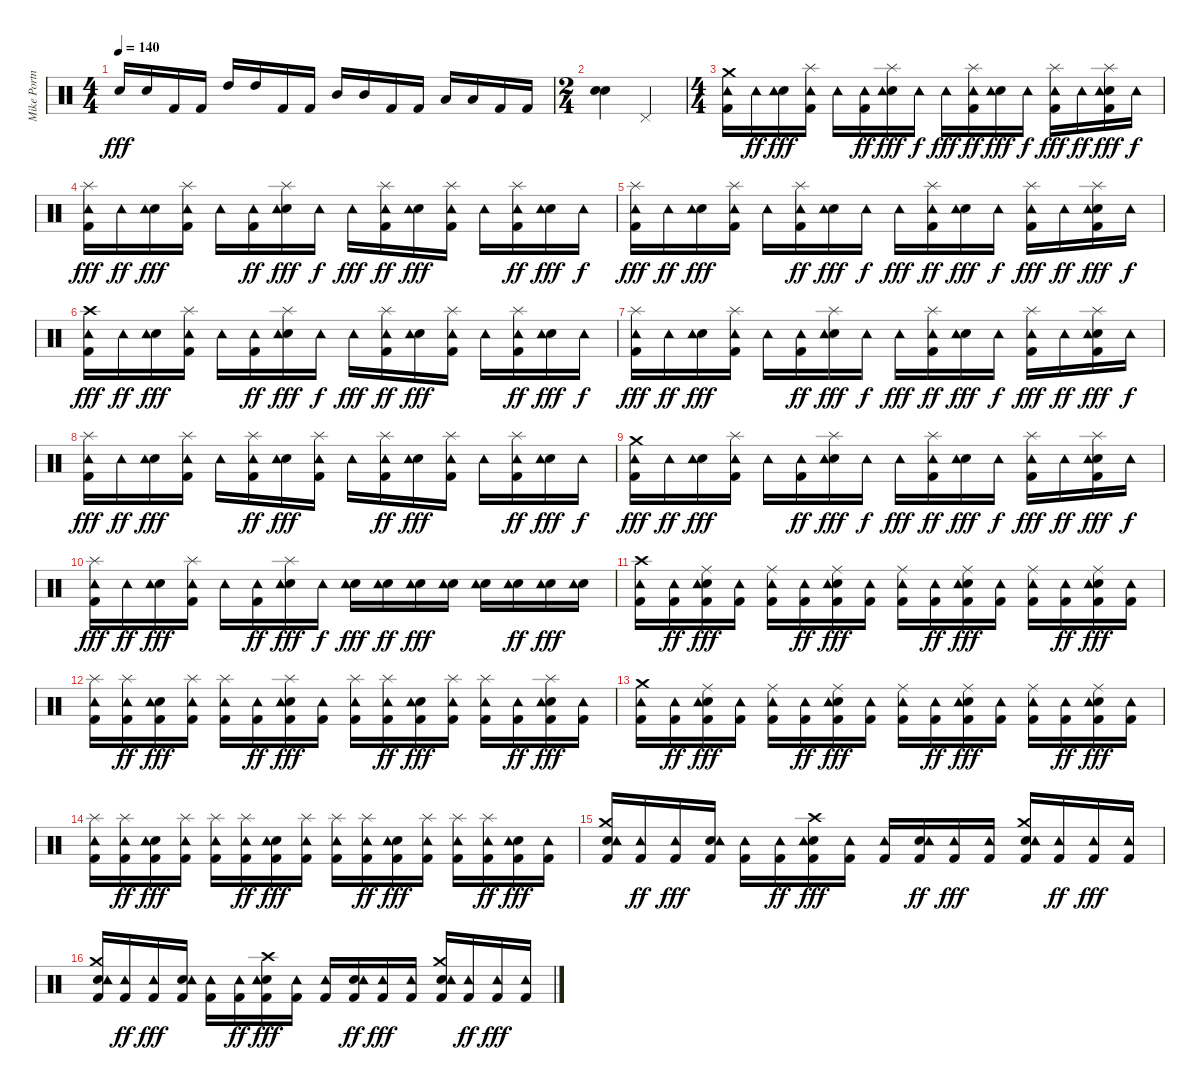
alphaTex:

\track ("Mike Portnoy" "Mike Portn") {instrument percussion}
\staff {score}
\articulation defaults
\ts (4 4)
\tempo 140
\clef neutral
\ks c "Snare (hit) 2".16{dy fff} "Snare (hit) 2".16 "Kick (hit) 2".16 "Kick (hit) 2".16 "High Tom (hit)".16 "High Tom (hit)".16 "Kick (hit) 2".16 "Kick (hit) 2".16 "Mid Tom (hit)".16 "Mid Tom (hit)".16 "Kick (hit) 2".16 "Kick (hit) 2".16 "Low Tom (hit)".16 "Low Tom (hit)".16 "Kick (hit) 2".16 "Kick (hit) 2".16
|
\ts (2 4)
("Snare (hit) 2" "Snare (hit) 2").4 "Pedal Hi-Hat (hit)".4 |
\ts (4 4)
("Crash medium (hit)" "Kick (hit) 2" "Tambourine (hit)").16 "Tambourine (hit)".16{dy ff} ("Snare (hit) 2" "Tambourine (hit)").16{dy fff} ("Splash (hit)" "Kick (hit) 2" "Tambourine (hit)").16 "Tambourine (hit)".16 ("Kick (hit) 2" "Tambourine (hit)").16{dy ff} ("Splash (hit)" "Snare (hit) 2" "Tambourine (hit)").16{dy fff} "Tambourine (hit)".16{dy f} "Tambourine (hit)".16{dy fff} ("Splash (hit)" "Kick (hit) 2" "Tambourine (hit)").16{dy ff} ("Snare (hit) 2" "Tambourine (hit)").16{dy fff} "Tambourine (hit)".16{dy f} ("Splash (hit)" "Kick (hit) 2" "Tambourine (hit)").16{dy fff} "Tambourine (hit)".16{dy ff} ("Splash (hit)" "Snare (hit) 2" "Kick (hit) 2" "Tambourine (hit)").16{dy fff} "Tambourine (hit)".16{dy f} |
("Splash (hit)" "Kick (hit) 2" "Tambourine (hit)").16{dy fff} "Tambourine (hit)".16{dy ff} ("Snare (hit) 2" "Tambourine (hit)").16{dy fff} ("Splash (hit)" "Kick (hit) 2" "Tambourine (hit)").16 "Tambourine (hit)".16 ("Kick (hit) 2" "Tambourine (hit)").16{dy ff} ("Splash (hit)" "Snare (hit) 2" "Tambourine (hit)").16{dy fff} "Tambourine (hit)".16{dy f} "Tambourine (hit)".16{dy fff} ("Splash (hit)" "Kick (hit) 2" "Tambourine (hit)").16{dy ff} ("Snare (hit) 2" "Tambourine (hit)").16{dy fff} ("Splash (hit)" "Kick (hit) 2" "Tambourine (hit)").16 "Tambourine (hit)".16 ("Splash (hit)" "Kick (hit) 2" "Tambourine (hit)").16{dy ff} ("Snare (hit) 2" "Tambourine (hit)").16{dy fff} "Tambourine (hit)".16{dy f} |
("Splash (hit)" "Kick (hit) 2" "Tambourine (hit)").16{dy fff} "Tambourine (hit)".16{dy ff} ("Snare (hit) 2" "Tambourine (hit)").16{dy fff} ("Splash (hit)" "Kick (hit) 2" "Tambourine (hit)").16 "Tambourine (hit)".16 ("Splash (hit)" "Kick (hit) 2" "Tambourine (hit)").16{dy ff} ("Snare (hit) 2" "Tambourine (hit)").16{dy fff} "Tambourine (hit)".16{dy f} "Tambourine (hit)".16{dy fff} ("Splash (hit)" "Kick (hit) 2" "Tambourine (hit)").16{dy ff} ("Snare (hit) 2" "Tambourine (hit)").16{dy fff} "Tambourine (hit)".16{dy f} ("Splash (hit)" "Kick (hit) 2" "Tambourine (hit)").16{dy fff} "Tambourine (hit)".16{dy ff} ("Splash (hit)" "Snare (hit) 2" "Kick (hit) 2" "Tambourine (hit)").16{dy fff} "Tambourine (hit)".16{dy f} |
("Crash high (hit)" "Kick (hit) 2" "Tambourine (hit)").16{dy fff} "Tambourine (hit)".16{dy ff} ("Snare (hit) 2" "Tambourine (hit)").16{dy fff} ("Splash (hit)" "Kick (hit) 2" "Tambourine (hit)").16 "Tambourine (hit)".16 ("Kick (hit) 2" "Tambourine (hit)").16{dy ff} ("Splash (hit)" "Snare (hit) 2" "Tambourine (hit)").16{dy fff} "Tambourine (hit)".16{dy f} "Tambourine (hit)".16{dy fff} ("Splash (hit)" "Kick (hit) 2" "Tambourine (hit)").16{dy ff} ("Snare (hit) 2" "Tambourine (hit)").16{dy fff} ("Splash (hit)" "Kick (hit) 2" "Tambourine (hit)").16 "Tambourine (hit)".16 ("Splash (hit)" "Kick (hit) 2" "Tambourine (hit)").16{dy ff} ("Snare (hit) 2" "Tambourine (hit)").16{dy fff} "Tambourine (hit)".16{dy f} |
("Splash (hit)" "Kick (hit) 2" "Tambourine (hit)").16{dy fff} "Tambourine (hit)".16{dy ff} ("Snare (hit) 2" "Tambourine (hit)").16{dy fff} ("Splash (hit)" "Kick (hit) 2" "Tambourine (hit)").16 "Tambourine (hit)".16 ("Kick (hit) 2" "Tambourine (hit)").16{dy ff} ("Splash (hit)" "Snare (hit) 2" "Tambourine (hit)").16{dy fff} "Tambourine (hit)".16{dy f} "Tambourine (hit)".16{dy fff} ("Splash (hit)" "Kick (hit) 2" "Tambourine (hit)").16{dy ff} ("Snare (hit) 2" "Tambourine (hit)").16{dy fff} "Tambourine (hit)".16{dy f} ("Splash (hit)" "Kick (hit) 2" "Tambourine (hit)").16{dy fff} "Tambourine (hit)".16{dy ff} ("Splash (hit)" "Snare (hit) 2" "Kick (hit) 2" "Tambourine (hit)").16{dy fff} "Tambourine (hit)".16{dy f} |
("Splash (hit)" "Kick (hit) 2" "Tambourine (hit)").16{dy fff} "Tambourine (hit)".16{dy ff} ("Snare (hit) 2" "Tambourine (hit)").16{dy fff} ("Splash (hit)" "Kick (hit) 2" "Tambourine (hit)").16 "Tambourine (hit)".16 ("Splash (hit)" "Kick (hit) 2" "Tambourine (hit)").16{dy ff} ("Snare (hit) 2" "Tambourine (hit)").16{dy fff} ("Splash (hit)" "Kick (hit) 2" "Tambourine (hit)").16 "Tambourine (hit)".16 ("Splash (hit)" "Kick (hit) 2" "Tambourine (hit)").16{dy ff} ("Snare (hit) 2" "Tambourine (hit)").16{dy fff} ("Splash (hit)" "Kick (hit) 2" "Tambourine (hit)").16 "Tambourine (hit)".16 ("Splash (hit)" "Kick (hit) 2" "Tambourine (hit)").16{dy ff} ("Snare (hit) 2" "Tambourine (hit)").16{dy fff} "Tambourine (hit)".16{dy f} |
("Crash medium (hit)" "Kick (hit) 2" "Tambourine (hit)").16{dy fff} "Tambourine (hit)".16{dy ff} ("Snare (hit) 2" "Tambourine (hit)").16{dy fff} ("Splash (hit)" "Kick (hit) 2" "Tambourine (hit)").16 "Tambourine (hit)".16 ("Kick (hit) 2" "Tambourine (hit)").16{dy ff} ("Splash (hit)" "Snare (hit) 2" "Tambourine (hit)").16{dy fff} "Tambourine (hit)".16{dy f} "Tambourine (hit)".16{dy fff} ("Splash (hit)" "Kick (hit) 2" "Tambourine (hit)").16{dy ff} ("Snare (hit) 2" "Tambourine (hit)").16{dy fff} "Tambourine (hit)".16{dy f} ("Splash (hit)" "Kick (hit) 2" "Tambourine (hit)").16{dy fff} "Tambourine (hit)".16{dy ff} ("Splash (hit)" "Snare (hit) 2" "Kick (hit) 2" "Tambourine (hit)").16{dy fff} "Tambourine (hit)".16{dy f} |
("Splash (hit)" "Kick (hit) 2" "Tambourine (hit)").16{dy fff} "Tambourine (hit)".16{dy ff} ("Snare (hit) 2" "Tambourine (hit)").16{dy fff} ("Splash (hit)" "Kick (hit) 2" "Tambourine (hit)").16 "Tambourine (hit)".16 ("Kick (hit) 2" "Tambourine (hit)").16{dy ff} ("Splash (hit)" "Snare (hit) 2" "Tambourine (hit)").16{dy fff} "Tambourine (hit)".16{dy f} ("Snare (hit) 2" "Tambourine (hit)").16{dy fff} ("Snare (hit) 2" "Tambourine (hit)").16{dy ff} ("Snare (hit) 2" "Tambourine (hit)").16{dy fff} ("Snare (hit) 2" "Tambourine (hit)").16 ("Snare (hit) 2" "Tambourine (hit)").16 ("Snare (hit) 2" "Tambourine (hit)").16{dy ff} ("Snare (hit) 2" "Tambourine (hit)").16{dy fff} ("Snare (hit) 2" "Tambourine (hit)").16 |
("Crash high (hit)" "Kick (hit) 2" "Tambourine (hit)").16 ("Kick (hit) 2" "Tambourine (hit)").16{dy ff} ("Ride (middle)" "Snare (hit) 2" "Kick (hit) 2" "Tambourine (hit)").16{dy fff} ("Kick (hit) 2" "Tambourine (hit)").16 ("Ride (middle)" "Kick (hit) 2" "Tambourine (hit)").16 ("Kick (hit) 2" "Tambourine (hit)").16{dy ff} ("Ride (middle)" "Snare (hit) 2" "Kick (hit) 2" "Tambourine (hit)").16{dy fff} ("Kick (hit) 2" "Tambourine (hit)").16 ("Ride (middle)" "Kick (hit) 2" "Tambourine (hit)").16 ("Kick (hit) 2" "Tambourine (hit)").16{dy ff} ("Ride (middle)" "Snare (hit) 2" "Kick (hit) 2" "Tambourine (hit)").16{dy fff} ("Kick (hit) 2" "Tambourine (hit)").16 ("Ride (middle)" "Kick (hit) 2" "Tambourine (hit)").16 ("Kick (hit) 2" "Tambourine (hit)").16{dy ff} ("Ride (middle)" "Snare (hit) 2" "Kick (hit) 2" "Tambourine (hit)").16{dy fff} ("Kick (hit) 2" "Tambourine (hit)").16 |
("Splash (hit)" "Kick (hit) 2" "Tambourine (hit)").16 ("Splash (hit)" "Kick (hit) 2" "Tambourine (hit)").16{dy ff} ("Snare (hit) 2" "Kick (hit) 2" "Tambourine (hit)").16{dy fff} ("Splash (hit)" "Kick (hit) 2" "Tambourine (hit)").16 ("Splash (hit)" "Kick (hit) 2" "Tambourine (hit)").16 ("Kick (hit) 2" "Tambourine (hit)").16{dy ff} ("Splash (hit)" "Snare (hit) 2" "Kick (hit) 2" "Tambourine (hit)").16{dy fff} ("Kick (hit) 2" "Tambourine (hit)").16 ("Splash (hit)" "Kick (hit) 2" "Tambourine (hit)").16 ("Splash (hit)" "Kick (hit) 2" "Tambourine (hit)").16{dy ff} ("Snare (hit) 2" "Kick (hit) 2" "Tambourine (hit)").16{dy fff} ("Splash (hit)" "Kick (hit) 2" "Tambourine (hit)").16 ("Splash (hit)" "Kick (hit) 2" "Tambourine (hit)").16 ("Kick (hit) 2" "Tambourine (hit)").16{dy ff} ("Splash (hit)" "Snare (hit) 2" "Kick (hit) 2" "Tambourine (hit)").16{dy fff} ("Kick (hit) 2" "Tambourine (hit)").16 |
("Crash medium (hit)" "Kick (hit) 2" "Tambourine (hit)").16 ("Kick (hit) 2" "Tambourine (hit)").16{dy ff} ("Ride (middle)" "Snare (hit) 2" "Kick (hit) 2" "Tambourine (hit)").16{dy fff} ("Kick (hit) 2" "Tambourine (hit)").16 ("Ride (middle)" "Kick (hit) 2" "Tambourine (hit)").16 ("Kick (hit) 2" "Tambourine (hit)").16{dy ff} ("Ride (middle)" "Snare (hit) 2" "Kick (hit) 2" "Tambourine (hit)").16{dy fff} ("Kick (hit) 2" "Tambourine (hit)").16 ("Ride (middle)" "Kick (hit) 2" "Tambourine (hit)").16 ("Kick (hit) 2" "Tambourine (hit)").16{dy ff} ("Ride (middle)" "Snare (hit) 2" "Kick (hit) 2" "Tambourine (hit)").16{dy fff} ("Kick (hit) 2" "Tambourine (hit)").16 ("Ride (middle)" "Kick (hit) 2" "Tambourine (hit)").16 ("Kick (hit) 2" "Tambourine (hit)").16{dy ff} ("Ride (middle)" "Snare (hit) 2" "Kick (hit) 2" "Tambourine (hit)").16{dy fff} ("Kick (hit) 2" "Tambourine (hit)").16 |
("Splash (hit)" "Kick (hit) 2" "Tambourine (hit)").16 ("Splash (hit)" "Kick (hit) 2" "Tambourine (hit)").16{dy ff} ("Snare (hit) 2" "Kick (hit) 2" "Tambourine (hit)").16{dy fff} ("Splash (hit)" "Kick (hit) 2" "Tambourine (hit)").16 ("Splash (hit)" "Kick (hit) 2" "Tambourine (hit)").16 ("Splash (hit)" "Kick (hit) 2" "Tambourine (hit)").16{dy ff} ("Snare (hit) 2" "Kick (hit) 2" "Tambourine (hit)").16{dy fff} ("Splash (hit)" "Kick (hit) 2" "Tambourine (hit)").16 ("Splash (hit)" "Kick (hit) 2" "Tambourine (hit)").16 ("Splash (hit)" "Kick (hit) 2" "Tambourine (hit)").16{dy ff} ("Snare (hit) 2" "Kick (hit) 2" "Tambourine (hit)").16{dy fff} ("Splash (hit)" "Kick (hit) 2" "Tambourine (hit)").16 ("Splash (hit)" "Kick (hit) 2" "Tambourine (hit)").16 ("Splash (hit)" "Kick (hit) 2" "Tambourine (hit)").16{dy ff} ("Snare (hit) 2" "Kick (hit) 2" "Tambourine (hit)").16{dy fff} ("Kick (hit) 2" "Tambourine (hit)").16 |
("Crash medium (hit)" "Snare (hit) 2" "Kick (hit) 2" "Tambourine (hit)").16 ("Kick (hit) 2" "Tambourine (hit)").16{dy ff} ("Kick (hit) 2" "Tambourine (hit)").16{dy fff} ("Snare (hit) 2" "Kick (hit) 2" "Tambourine (hit)").16 ("Kick (hit) 2" "Tambourine (hit)").16 ("Kick (hit) 2" "Tambourine (hit)").16{dy ff} ("Crash high (hit)" "Snare (hit) 2" "Kick (hit) 2" "Tambourine (hit)").16{dy fff} ("Kick (hit) 2" "Tambourine (hit)").16 ("Kick (hit) 2" "Tambourine (hit)").16 ("Snare (hit) 2" "Kick (hit) 2" "Tambourine (hit)").16{dy ff} ("Kick (hit) 2" "Tambourine (hit)").16{dy fff} ("Kick (hit) 2" "Tambourine (hit)").16 ("Crash medium (hit)" "Snare (hit) 2" "Kick (hit) 2" "Tambourine (hit)").16 ("Kick (hit) 2" "Tambourine (hit)").16{dy ff} ("Kick (hit) 2" "Tambourine (hit)").16{dy fff} ("Kick (hit) 2" "Tambourine (hit)").16 |
("Crash medium (hit)" "Snare (hit) 2" "Kick (hit) 2" "Tambourine (hit)").16 ("Kick (hit) 2" "Tambourine (hit)").16{dy ff} ("Kick (hit) 2" "Tambourine (hit)").16{dy fff} ("Snare (hit) 2" "Kick (hit) 2" "Tambourine (hit)").16 ("Kick (hit) 2" "Tambourine (hit)").16 ("Kick (hit) 2" "Tambourine (hit)").16{dy ff} ("Crash high (hit)" "Snare (hit) 2" "Kick (hit) 2" "Tambourine (hit)").16{dy fff} ("Kick (hit) 2" "Tambourine (hit)").16 ("Kick (hit) 2" "Tambourine (hit)").16 ("Snare (hit) 2" "Kick (hit) 2" "Tambourine (hit)").16{dy ff} ("Kick (hit) 2" "Tambourine (hit)").16{dy fff} ("Kick (hit) 2" "Tambourine (hit)").16 ("Crash medium (hit)" "Snare (hit) 2" "Kick (hit) 2" "Tambourine (hit)").16 ("Kick (hit) 2" "Tambourine (hit)").16{dy ff} ("Kick (hit) 2" "Tambourine (hit)").16{dy fff} ("Kick (hit) 2" "Tambourine (hit)").16
